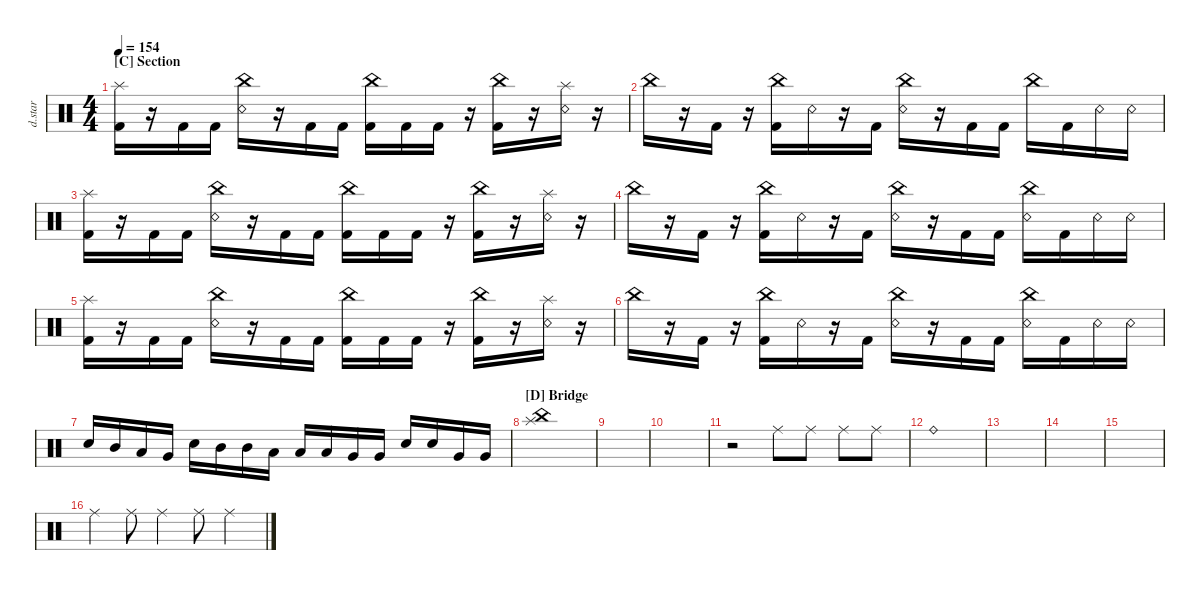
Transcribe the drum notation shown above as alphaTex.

\defaultSystemsLayout 4
\hideDynamics
\bracketExtendMode nobrackets
\otherSystemsTrackNameOrientation horizontal
\track ("Drumkit Star" "d.star") {instrument percussion}
\staff {score}
\articulation defaults
\ts (4 4)
\section ("C" "Section")
\tempo 154
\clef neutral
\ks c
("Kick (hit) 2" "Splash (hit)").16{dy ff beam Down} r.16{beam Down} "Kick (hit) 2".16{beam Down} "Kick (hit) 2".16{beam Down} ("Snare (rim shot)" "China (hit)").16{beam Down} r.16{beam Down} "Kick (hit) 2".16{beam Down} "Kick (hit) 2".16{beam Down} ("Kick (hit) 2" "China (hit)").16{beam Down} "Kick (hit) 2".16{beam Down} "Kick (hit) 2".16{beam Down} r.16{beam Down} ("Kick (hit) 2" "China (hit)").16{beam Down} r.16{beam Down} ("Snare (rim shot)" "Splash (hit)").16{beam Down} r.16{beam Down} |
"China (hit)".16{beam Down} r.16{beam Down} "Kick (hit) 2".16{beam Down} r.16{beam Down} ("Kick (hit) 2" "China (hit)").16{beam Down} "Snare (rim shot)".16{beam Down} r.16{beam Down} "Kick (hit) 2".16{beam Down} ("China (hit)" "Snare (rim shot)").16{beam Down} r.16{beam Down} "Kick (hit) 2".16{beam Down} "Kick (hit) 2".16{beam Down} "China (hit)".16{beam Down} "Kick (hit) 2".16{beam Down} "Snare (rim shot)".16{beam Down} "Snare (rim shot)".16{beam Down} |
("Kick (hit) 2" "Splash (hit)").16{beam Down} r.16{beam Down} "Kick (hit) 2".16{beam Down} "Kick (hit) 2".16{beam Down} ("Snare (rim shot)" "China (hit)").16{beam Down} r.16{beam Down} "Kick (hit) 2".16{beam Down} "Kick (hit) 2".16{beam Down} ("Kick (hit) 2" "China (hit)").16{beam Down} "Kick (hit) 2".16{beam Down} "Kick (hit) 2".16{beam Down} r.16{beam Down} ("Kick (hit) 2" "China (hit)").16{beam Down} r.16{beam Down} ("Snare (rim shot)" "Splash (hit)").16{beam Down} r.16{beam Down} |
"China (hit)".16{beam Down} r.16{beam Down} "Kick (hit) 2".16{beam Down} r.16{beam Down} ("Kick (hit) 2" "China (hit)").16{beam Down} "Snare (rim shot)".16{beam Down} r.16{beam Down} "Kick (hit) 2".16{beam Down} ("China (hit)" "Snare (rim shot)").16{beam Down} r.16{beam Down} "Kick (hit) 2".16{beam Down} "Kick (hit) 2".16{beam Down} ("China (hit)" "Snare (rim shot)").16{beam Down} "Kick (hit) 2".16{beam Down} "Snare (rim shot)".16{beam Down} "Snare (rim shot)".16{beam Down} |
("Kick (hit) 2" "Splash (hit)").16{beam Down} r.16{beam Down} "Kick (hit) 2".16{beam Down} "Kick (hit) 2".16{beam Down} ("Snare (rim shot)" "China (hit)").16{beam Down} r.16{beam Down} "Kick (hit) 2".16{beam Down} "Kick (hit) 2".16{beam Down} ("Kick (hit) 2" "China (hit)").16{beam Down} "Kick (hit) 2".16{beam Down} "Kick (hit) 2".16{beam Down} r.16{beam Down} ("Kick (hit) 2" "China (hit)").16{beam Down} r.16{beam Down} ("Snare (rim shot)" "Splash (hit)").16{beam Down} r.16{beam Down} |
"China (hit)".16{beam Down} r.16{beam Down} "Kick (hit) 2".16{beam Down} r.16{beam Down} ("Kick (hit) 2" "China (hit)").16{beam Down} "Snare (rim shot)".16{beam Down} r.16{beam Down} "Kick (hit) 2".16{beam Down} ("China (hit)" "Snare (rim shot)").16{beam Down} r.16{beam Down} "Kick (hit) 2".16{beam Down} "Kick (hit) 2".16{beam Down} ("China (hit)" "Snare (rim shot)").16{beam Down} "Kick (hit) 2".16{beam Down} "Snare (rim shot)".16{beam Down} "Snare (rim shot)".16{beam Down} |
"Snare (hit) 2".16{beam Up} "Mid Tom (hit)".16{beam Up} "Low Tom (hit)".16{beam Up} "Very Low Tom (hit)".16{beam Up} "Snare (hit) 2".16{beam Down} "Mid Tom (hit)".16{beam Down} "Mid Tom (hit)".16{beam Down} "Low Tom (hit)".16{beam Down} "Low Tom (hit)".16{beam Up} "Low Tom (hit)".16{beam Up} "Very Low Tom (hit)".16{beam Up} "Very Low Tom (hit)".16{beam Up} "Snare (hit) 2".16{beam Up} "Snare (hit) 2".16{beam Up} "Very Low Tom (hit)".16{beam Up} "Very Low Tom (hit)".16{beam Up} |
\section ("D" "Bridge")
("Splash (hit)" "China (hit)").1{dy f beam Down} |
|
|
r.2{beam Down} "Ride (middle)".8{dy p beam Down} "Ride (middle)".8{beam Down} "Ride (middle)".8{beam Down} "Ride (middle)".8{beam Down} |
"Ride (bell)".1{beam Down} |
|
|
|
"Ride (middle)".4{beam Down} "Ride (middle)".8{beam Down} "Ride (middle)".4{beam Down} "Ride (middle)".8{beam Down} "Ride (middle)".4{beam Down}
